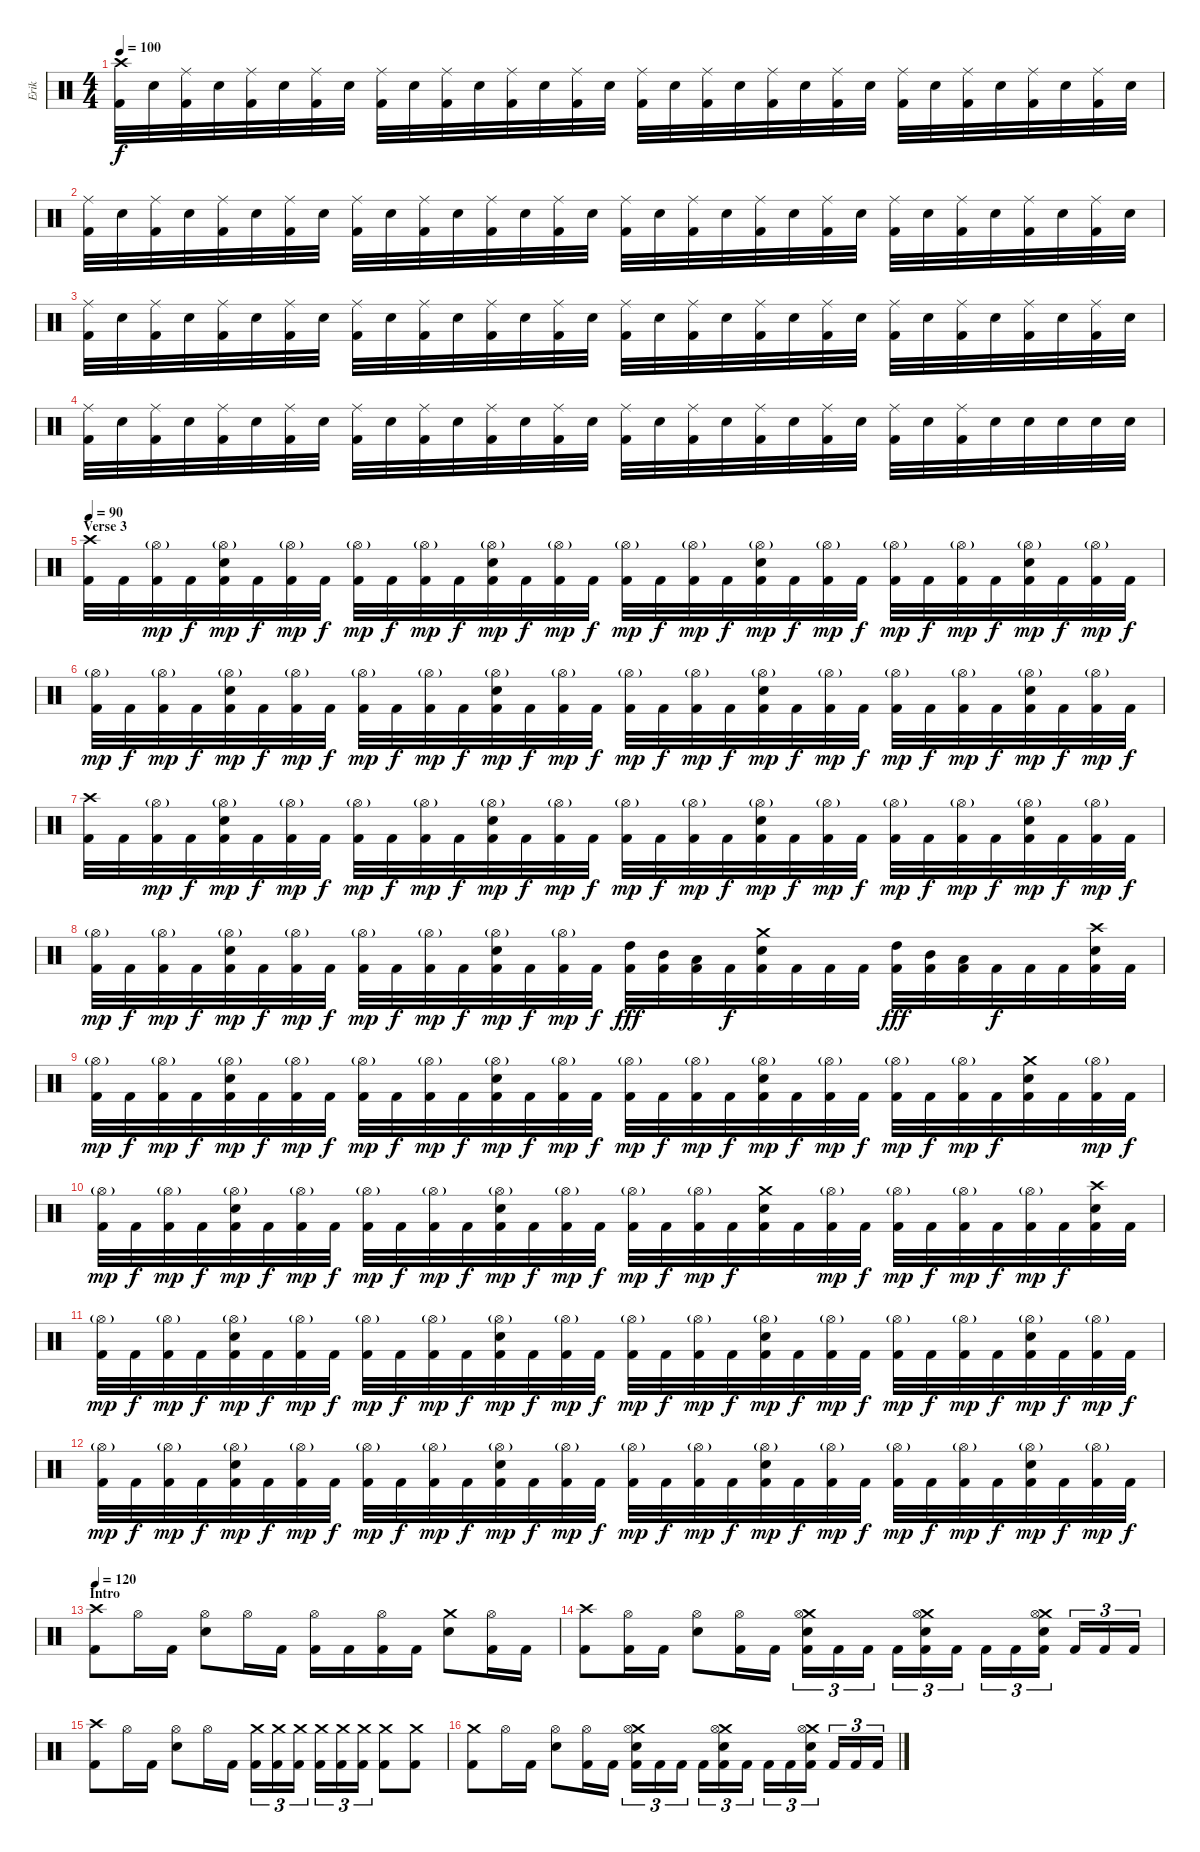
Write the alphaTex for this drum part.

\track ("Erik" "Erik") {instrument percussion}
\staff {score}
\articulation defaults
\ts (4 4)
\tempo 100
\clef neutral
\ks c
("Crash high (hit)" "Kick (hit) 2").32{dy f} "Electric Snare (hit)".32 ("Ride (middle)" "Kick (hit) 2").32 "Electric Snare (hit)".32 ("Ride (middle)" "Kick (hit) 2").32 "Electric Snare (hit)".32 ("Ride (middle)" "Kick (hit) 2").32 "Electric Snare (hit)".32 ("Ride (middle)" "Kick (hit) 2").32 "Electric Snare (hit)".32 ("Ride (middle)" "Kick (hit) 2").32 "Electric Snare (hit)".32 ("Ride (middle)" "Kick (hit) 2").32 "Electric Snare (hit)".32 ("Ride (middle)" "Kick (hit) 2").32 "Electric Snare (hit)".32 ("Ride (middle)" "Kick (hit) 2").32 "Electric Snare (hit)".32 ("Ride (middle)" "Kick (hit) 2").32 "Electric Snare (hit)".32 ("Ride (middle)" "Kick (hit) 2").32 "Electric Snare (hit)".32 ("Ride (middle)" "Kick (hit) 2").32 "Electric Snare (hit)".32 ("Ride (middle)" "Kick (hit) 2").32 "Electric Snare (hit)".32 ("Ride (middle)" "Kick (hit) 2").32 "Electric Snare (hit)".32 ("Ride (middle)" "Kick (hit) 2").32 "Electric Snare (hit)".32 ("Ride (middle)" "Kick (hit) 2").32 "Electric Snare (hit)".32 |
("Ride (middle)" "Kick (hit) 2").32 "Electric Snare (hit)".32 ("Ride (middle)" "Kick (hit) 2").32 "Electric Snare (hit)".32 ("Ride (middle)" "Kick (hit) 2").32 "Electric Snare (hit)".32 ("Ride (middle)" "Kick (hit) 2").32 "Electric Snare (hit)".32 ("Ride (middle)" "Kick (hit) 2").32 "Electric Snare (hit)".32 ("Ride (middle)" "Kick (hit) 2").32 "Electric Snare (hit)".32 ("Ride (middle)" "Kick (hit) 2").32 "Electric Snare (hit)".32 ("Ride (middle)" "Kick (hit) 2").32 "Electric Snare (hit)".32 ("Ride (middle)" "Kick (hit) 2").32 "Electric Snare (hit)".32 ("Ride (middle)" "Kick (hit) 2").32 "Electric Snare (hit)".32 ("Ride (middle)" "Kick (hit) 2").32 "Electric Snare (hit)".32 ("Ride (middle)" "Kick (hit) 2").32 "Electric Snare (hit)".32 ("Ride (middle)" "Kick (hit) 2").32 "Electric Snare (hit)".32 ("Ride (middle)" "Kick (hit) 2").32 "Electric Snare (hit)".32 ("Ride (middle)" "Kick (hit) 2").32 "Electric Snare (hit)".32 ("Ride (middle)" "Kick (hit) 2").32 "Electric Snare (hit)".32 |
("Ride (middle)" "Kick (hit) 2").32 "Electric Snare (hit)".32 ("Ride (middle)" "Kick (hit) 2").32 "Electric Snare (hit)".32 ("Ride (middle)" "Kick (hit) 2").32 "Electric Snare (hit)".32 ("Ride (middle)" "Kick (hit) 2").32 "Electric Snare (hit)".32 ("Ride (middle)" "Kick (hit) 2").32 "Electric Snare (hit)".32 ("Ride (middle)" "Kick (hit) 2").32 "Electric Snare (hit)".32 ("Ride (middle)" "Kick (hit) 2").32 "Electric Snare (hit)".32 ("Ride (middle)" "Kick (hit) 2").32 "Electric Snare (hit)".32 ("Ride (middle)" "Kick (hit) 2").32 "Electric Snare (hit)".32 ("Ride (middle)" "Kick (hit) 2").32 "Electric Snare (hit)".32 ("Ride (middle)" "Kick (hit) 2").32 "Electric Snare (hit)".32 ("Ride (middle)" "Kick (hit) 2").32 "Electric Snare (hit)".32 ("Ride (middle)" "Kick (hit) 2").32 "Electric Snare (hit)".32 ("Ride (middle)" "Kick (hit) 2").32 "Electric Snare (hit)".32 ("Ride (middle)" "Kick (hit) 2").32 "Electric Snare (hit)".32 ("Ride (middle)" "Kick (hit) 2").32 "Electric Snare (hit)".32 |
("Ride (middle)" "Kick (hit) 2").32 "Electric Snare (hit)".32 ("Ride (middle)" "Kick (hit) 2").32 "Electric Snare (hit)".32 ("Ride (middle)" "Kick (hit) 2").32 "Electric Snare (hit)".32 ("Ride (middle)" "Kick (hit) 2").32 "Electric Snare (hit)".32 ("Ride (middle)" "Kick (hit) 2").32 "Electric Snare (hit)".32 ("Ride (middle)" "Kick (hit) 2").32 "Electric Snare (hit)".32 ("Ride (middle)" "Kick (hit) 2").32 "Electric Snare (hit)".32 ("Ride (middle)" "Kick (hit) 2").32 "Electric Snare (hit)".32 ("Ride (middle)" "Kick (hit) 2").32 "Electric Snare (hit)".32 ("Ride (middle)" "Kick (hit) 2").32 "Electric Snare (hit)".32 ("Ride (middle)" "Kick (hit) 2").32 "Electric Snare (hit)".32 ("Ride (middle)" "Kick (hit) 2").32 "Electric Snare (hit)".32 ("Ride (middle)" "Kick (hit) 2").32 "Electric Snare (hit)".32 ("Ride (middle)" "Kick (hit) 2").32 "Electric Snare (hit)".32 "Electric Snare (hit)".32 "Electric Snare (hit)".32 "Electric Snare (hit)".32 "Electric Snare (hit)".32 |
\section ("" "Verse 3")
\tempo 90
("Crash high (hit)" "Kick (hit) 2").32 "Kick (hit) 2".32 ("Hi-Hat (open)"{g} "Kick (hit) 2").32{dy mp} "Kick (hit) 2".32{dy f} ("Hi-Hat (open)"{g} "Electric Snare (hit)" "Kick (hit) 2").32{dy mp} "Kick (hit) 2".32{dy f} ("Hi-Hat (open)"{g} "Kick (hit) 2").32{dy mp} "Kick (hit) 2".32{dy f} ("Hi-Hat (open)"{g} "Kick (hit) 2").32{dy mp} "Kick (hit) 2".32{dy f} ("Hi-Hat (open)"{g} "Kick (hit) 2").32{dy mp} "Kick (hit) 2".32{dy f} ("Hi-Hat (open)"{g} "Electric Snare (hit)" "Kick (hit) 2").32{dy mp} "Kick (hit) 2".32{dy f} ("Hi-Hat (open)"{g} "Kick (hit) 2").32{dy mp} "Kick (hit) 2".32{dy f} ("Hi-Hat (open)"{g} "Kick (hit) 2").32{dy mp} "Kick (hit) 2".32{dy f} ("Hi-Hat (open)"{g} "Kick (hit) 2").32{dy mp} "Kick (hit) 2".32{dy f} ("Hi-Hat (open)"{g} "Electric Snare (hit)" "Kick (hit) 2").32{dy mp} "Kick (hit) 2".32{dy f} ("Hi-Hat (open)"{g} "Kick (hit) 2").32{dy mp} "Kick (hit) 2".32{dy f} ("Hi-Hat (open)"{g} "Kick (hit) 2").32{dy mp} "Kick (hit) 2".32{dy f} ("Hi-Hat (open)"{g} "Kick (hit) 2").32{dy mp} "Kick (hit) 2".32{dy f} ("Hi-Hat (open)"{g} "Electric Snare (hit)" "Kick (hit) 2").32{dy mp} "Kick (hit) 2".32{dy f} ("Hi-Hat (open)"{g} "Kick (hit) 2").32{dy mp} "Kick (hit) 2".32{dy f} |
("Hi-Hat (open)"{g} "Kick (hit) 2").32{dy mp} "Kick (hit) 2".32{dy f} ("Hi-Hat (open)"{g} "Kick (hit) 2").32{dy mp} "Kick (hit) 2".32{dy f} ("Hi-Hat (open)"{g} "Electric Snare (hit)" "Kick (hit) 2").32{dy mp} "Kick (hit) 2".32{dy f} ("Hi-Hat (open)"{g} "Kick (hit) 2").32{dy mp} "Kick (hit) 2".32{dy f} ("Hi-Hat (open)"{g} "Kick (hit) 2").32{dy mp} "Kick (hit) 2".32{dy f} ("Hi-Hat (open)"{g} "Kick (hit) 2").32{dy mp} "Kick (hit) 2".32{dy f} ("Hi-Hat (open)"{g} "Electric Snare (hit)" "Kick (hit) 2").32{dy mp} "Kick (hit) 2".32{dy f} ("Hi-Hat (open)"{g} "Kick (hit) 2").32{dy mp} "Kick (hit) 2".32{dy f} ("Hi-Hat (open)"{g} "Kick (hit) 2").32{dy mp} "Kick (hit) 2".32{dy f} ("Hi-Hat (open)"{g} "Kick (hit) 2").32{dy mp} "Kick (hit) 2".32{dy f} ("Hi-Hat (open)"{g} "Electric Snare (hit)" "Kick (hit) 2").32{dy mp} "Kick (hit) 2".32{dy f} ("Hi-Hat (open)"{g} "Kick (hit) 2").32{dy mp} "Kick (hit) 2".32{dy f} ("Hi-Hat (open)"{g} "Kick (hit) 2").32{dy mp} "Kick (hit) 2".32{dy f} ("Hi-Hat (open)"{g} "Kick (hit) 2").32{dy mp} "Kick (hit) 2".32{dy f} ("Hi-Hat (open)"{g} "Electric Snare (hit)" "Kick (hit) 2").32{dy mp} "Kick (hit) 2".32{dy f} ("Hi-Hat (open)"{g} "Kick (hit) 2").32{dy mp} "Kick (hit) 2".32{dy f} |
("Crash high (hit)" "Kick (hit) 2").32 "Kick (hit) 2".32 ("Hi-Hat (open)"{g} "Kick (hit) 2").32{dy mp} "Kick (hit) 2".32{dy f} ("Hi-Hat (open)"{g} "Electric Snare (hit)" "Kick (hit) 2").32{dy mp} "Kick (hit) 2".32{dy f} ("Hi-Hat (open)"{g} "Kick (hit) 2").32{dy mp} "Kick (hit) 2".32{dy f} ("Hi-Hat (open)"{g} "Kick (hit) 2").32{dy mp} "Kick (hit) 2".32{dy f} ("Hi-Hat (open)"{g} "Kick (hit) 2").32{dy mp} "Kick (hit) 2".32{dy f} ("Hi-Hat (open)"{g} "Electric Snare (hit)" "Kick (hit) 2").32{dy mp} "Kick (hit) 2".32{dy f} ("Hi-Hat (open)"{g} "Kick (hit) 2").32{dy mp} "Kick (hit) 2".32{dy f} ("Hi-Hat (open)"{g} "Kick (hit) 2").32{dy mp} "Kick (hit) 2".32{dy f} ("Hi-Hat (open)"{g} "Kick (hit) 2").32{dy mp} "Kick (hit) 2".32{dy f} ("Hi-Hat (open)"{g} "Electric Snare (hit)" "Kick (hit) 2").32{dy mp} "Kick (hit) 2".32{dy f} ("Hi-Hat (open)"{g} "Kick (hit) 2").32{dy mp} "Kick (hit) 2".32{dy f} ("Hi-Hat (open)"{g} "Kick (hit) 2").32{dy mp} "Kick (hit) 2".32{dy f} ("Hi-Hat (open)"{g} "Kick (hit) 2").32{dy mp} "Kick (hit) 2".32{dy f} ("Hi-Hat (open)"{g} "Electric Snare (hit)" "Kick (hit) 2").32{dy mp} "Kick (hit) 2".32{dy f} ("Hi-Hat (open)"{g} "Kick (hit) 2").32{dy mp} "Kick (hit) 2".32{dy f} |
("Hi-Hat (open)"{g} "Kick (hit) 2").32{dy mp} "Kick (hit) 2".32{dy f} ("Hi-Hat (open)"{g} "Kick (hit) 2").32{dy mp} "Kick (hit) 2".32{dy f} ("Hi-Hat (open)"{g} "Electric Snare (hit)" "Kick (hit) 2").32{dy mp} "Kick (hit) 2".32{dy f} ("Hi-Hat (open)"{g} "Kick (hit) 2").32{dy mp} "Kick (hit) 2".32{dy f} ("Hi-Hat (open)"{g} "Kick (hit) 2").32{dy mp} "Kick (hit) 2".32{dy f} ("Hi-Hat (open)"{g} "Kick (hit) 2").32{dy mp} "Kick (hit) 2".32{dy f} ("Hi-Hat (open)"{g} "Electric Snare (hit)" "Kick (hit) 2").32{dy mp} "Kick (hit) 2".32{dy f} ("Hi-Hat (open)"{g} "Kick (hit) 2").32{dy mp} "Kick (hit) 2".32{dy f} ("High Tom (hit)" "Kick (hit) 2").32{dy fff} ("Mid Tom (hit)" "Kick (hit) 2").32 ("Low Tom (hit)" "Kick (hit) 2").32 "Kick (hit) 2".32{dy f} ("Crash medium (hit)" "Electric Snare (hit)" "Kick (hit) 2").32 "Kick (hit) 2".32 "Kick (hit) 2".32 "Kick (hit) 2".32 ("High Tom (hit)" "Kick (hit) 2").32{dy fff} ("Mid Tom (hit)" "Kick (hit) 2").32 ("Low Tom (hit)" "Kick (hit) 2").32 "Kick (hit) 2".32{dy f} "Kick (hit) 2".32 "Kick (hit) 2".32 ("Crash high (hit)" "Electric Snare (hit)" "Kick (hit) 2").32 "Kick (hit) 2".32 |
("Hi-Hat (open)"{g} "Kick (hit) 2").32{dy mp} "Kick (hit) 2".32{dy f} ("Hi-Hat (open)"{g} "Kick (hit) 2").32{dy mp} "Kick (hit) 2".32{dy f} ("Hi-Hat (open)"{g} "Electric Snare (hit)" "Kick (hit) 2").32{dy mp} "Kick (hit) 2".32{dy f} ("Hi-Hat (open)"{g} "Kick (hit) 2").32{dy mp} "Kick (hit) 2".32{dy f} ("Hi-Hat (open)"{g} "Kick (hit) 2").32{dy mp} "Kick (hit) 2".32{dy f} ("Hi-Hat (open)"{g} "Kick (hit) 2").32{dy mp} "Kick (hit) 2".32{dy f} ("Hi-Hat (open)"{g} "Electric Snare (hit)" "Kick (hit) 2").32{dy mp} "Kick (hit) 2".32{dy f} ("Hi-Hat (open)"{g} "Kick (hit) 2").32{dy mp} "Kick (hit) 2".32{dy f} ("Hi-Hat (open)"{g} "Kick (hit) 2").32{dy mp} "Kick (hit) 2".32{dy f} ("Hi-Hat (open)"{g} "Kick (hit) 2").32{dy mp} "Kick (hit) 2".32{dy f} ("Hi-Hat (open)"{g} "Electric Snare (hit)" "Kick (hit) 2").32{dy mp} "Kick (hit) 2".32{dy f} ("Hi-Hat (open)"{g} "Kick (hit) 2").32{dy mp} "Kick (hit) 2".32{dy f} ("Hi-Hat (open)"{g} "Kick (hit) 2").32{dy mp} "Kick (hit) 2".32{dy f} ("Hi-Hat (open)"{g} "Kick (hit) 2").32{dy mp} "Kick (hit) 2".32{dy f} ("Crash medium (hit)" "Electric Snare (hit)" "Kick (hit) 2").32 "Kick (hit) 2".32 ("Hi-Hat (open)"{g} "Kick (hit) 2").32{dy mp} "Kick (hit) 2".32{dy f} |
("Hi-Hat (open)"{g} "Kick (hit) 2").32{dy mp} "Kick (hit) 2".32{dy f} ("Hi-Hat (open)"{g} "Kick (hit) 2").32{dy mp} "Kick (hit) 2".32{dy f} ("Hi-Hat (open)"{g} "Electric Snare (hit)" "Kick (hit) 2").32{dy mp} "Kick (hit) 2".32{dy f} ("Hi-Hat (open)"{g} "Kick (hit) 2").32{dy mp} "Kick (hit) 2".32{dy f} ("Hi-Hat (open)"{g} "Kick (hit) 2").32{dy mp} "Kick (hit) 2".32{dy f} ("Hi-Hat (open)"{g} "Kick (hit) 2").32{dy mp} "Kick (hit) 2".32{dy f} ("Hi-Hat (open)"{g} "Electric Snare (hit)" "Kick (hit) 2").32{dy mp} "Kick (hit) 2".32{dy f} ("Hi-Hat (open)"{g} "Kick (hit) 2").32{dy mp} "Kick (hit) 2".32{dy f} ("Hi-Hat (open)"{g} "Kick (hit) 2").32{dy mp} "Kick (hit) 2".32{dy f} ("Hi-Hat (open)"{g} "Kick (hit) 2").32{dy mp} "Kick (hit) 2".32{dy f} ("Crash medium (hit)" "Electric Snare (hit)" "Kick (hit) 2").32 "Kick (hit) 2".32 ("Hi-Hat (open)"{g} "Kick (hit) 2").32{dy mp} "Kick (hit) 2".32{dy f} ("Hi-Hat (open)"{g} "Kick (hit) 2").32{dy mp} "Kick (hit) 2".32{dy f} ("Hi-Hat (open)"{g} "Kick (hit) 2").32{dy mp} "Kick (hit) 2".32{dy f} ("Hi-Hat (open)"{g} "Kick (hit) 2").32{dy mp} "Kick (hit) 2".32{dy f} ("Crash high (hit)" "Electric Snare (hit)" "Kick (hit) 2").32 "Kick (hit) 2".32 |
("Hi-Hat (open)"{g} "Kick (hit) 2").32{dy mp} "Kick (hit) 2".32{dy f} ("Hi-Hat (open)"{g} "Kick (hit) 2").32{dy mp} "Kick (hit) 2".32{dy f} ("Hi-Hat (open)"{g} "Electric Snare (hit)" "Kick (hit) 2").32{dy mp} "Kick (hit) 2".32{dy f} ("Hi-Hat (open)"{g} "Kick (hit) 2").32{dy mp} "Kick (hit) 2".32{dy f} ("Hi-Hat (open)"{g} "Kick (hit) 2").32{dy mp} "Kick (hit) 2".32{dy f} ("Hi-Hat (open)"{g} "Kick (hit) 2").32{dy mp} "Kick (hit) 2".32{dy f} ("Hi-Hat (open)"{g} "Electric Snare (hit)" "Kick (hit) 2").32{dy mp} "Kick (hit) 2".32{dy f} ("Hi-Hat (open)"{g} "Kick (hit) 2").32{dy mp} "Kick (hit) 2".32{dy f} ("Hi-Hat (open)"{g} "Kick (hit) 2").32{dy mp} "Kick (hit) 2".32{dy f} ("Hi-Hat (open)"{g} "Kick (hit) 2").32{dy mp} "Kick (hit) 2".32{dy f} ("Hi-Hat (open)"{g} "Electric Snare (hit)" "Kick (hit) 2").32{dy mp} "Kick (hit) 2".32{dy f} ("Hi-Hat (open)"{g} "Kick (hit) 2").32{dy mp} "Kick (hit) 2".32{dy f} ("Hi-Hat (open)"{g} "Kick (hit) 2").32{dy mp} "Kick (hit) 2".32{dy f} ("Hi-Hat (open)"{g} "Kick (hit) 2").32{dy mp} "Kick (hit) 2".32{dy f} ("Hi-Hat (open)"{g} "Electric Snare (hit)" "Kick (hit) 2").32{dy mp} "Kick (hit) 2".32{dy f} ("Hi-Hat (open)"{g} "Kick (hit) 2").32{dy mp} "Kick (hit) 2".32{dy f} |
("Hi-Hat (open)"{g} "Kick (hit) 2").32{dy mp} "Kick (hit) 2".32{dy f} ("Hi-Hat (open)"{g} "Kick (hit) 2").32{dy mp} "Kick (hit) 2".32{dy f} ("Hi-Hat (open)"{g} "Electric Snare (hit)" "Kick (hit) 2").32{dy mp} "Kick (hit) 2".32{dy f} ("Hi-Hat (open)"{g} "Kick (hit) 2").32{dy mp} "Kick (hit) 2".32{dy f} ("Hi-Hat (open)"{g} "Kick (hit) 2").32{dy mp} "Kick (hit) 2".32{dy f} ("Hi-Hat (open)"{g} "Kick (hit) 2").32{dy mp} "Kick (hit) 2".32{dy f} ("Hi-Hat (open)"{g} "Electric Snare (hit)" "Kick (hit) 2").32{dy mp} "Kick (hit) 2".32{dy f} ("Hi-Hat (open)"{g} "Kick (hit) 2").32{dy mp} "Kick (hit) 2".32{dy f} ("Hi-Hat (open)"{g} "Kick (hit) 2").32{dy mp} "Kick (hit) 2".32{dy f} ("Hi-Hat (open)"{g} "Kick (hit) 2").32{dy mp} "Kick (hit) 2".32{dy f} ("Hi-Hat (open)"{g} "Electric Snare (hit)" "Kick (hit) 2").32{dy mp} "Kick (hit) 2".32{dy f} ("Hi-Hat (open)"{g} "Kick (hit) 2").32{dy mp} "Kick (hit) 2".32{dy f} ("Hi-Hat (open)"{g} "Kick (hit) 2").32{dy mp} "Kick (hit) 2".32{dy f} ("Hi-Hat (open)"{g} "Kick (hit) 2").32{dy mp} "Kick (hit) 2".32{dy f} ("Hi-Hat (open)"{g} "Electric Snare (hit)" "Kick (hit) 2").32{dy mp} "Kick (hit) 2".32{dy f} ("Hi-Hat (open)"{g} "Kick (hit) 2").32{dy mp} "Kick (hit) 2".32{dy f} |
\section ("" "Intro")
\tempo 120
("Crash high (hit)" "Kick (hit) 2").8 "Hi-Hat (open)".16 "Kick (hit) 2".16 ("Hi-Hat (open)" "Electric Snare (hit)").8 "Hi-Hat (open)".16 "Kick (hit) 2".16 ("Hi-Hat (open)" "Kick (hit) 2").16 "Kick (hit) 2".16 ("Hi-Hat (open)" "Kick (hit) 2").16 "Kick (hit) 2".16 ("Crash medium (hit)" "Electric Snare (hit)").8 ("Hi-Hat (open)" "Kick (hit) 2").16 "Kick (hit) 2".16 |
("Crash high (hit)" "Kick (hit) 2").8 ("Hi-Hat (open)" "Kick (hit) 2").16 "Kick (hit) 2".16 ("Hi-Hat (open)" "Electric Snare (hit)").8 ("Hi-Hat (open)" "Kick (hit) 2").16 "Kick (hit) 2".16 ("Crash medium (hit)" "Hi-Hat (open)" "Electric Snare (hit)" "Kick (hit) 2").16{tu (3 2)} "Kick (hit) 2".16{tu (3 2)} "Kick (hit) 2".16{tu (3 2)} "Kick (hit) 2".16{tu (3 2)} ("Crash medium (hit)" "Hi-Hat (open)" "Electric Snare (hit)" "Kick (hit) 2").16{tu (3 2)} "Kick (hit) 2".16{tu (3 2)} "Kick (hit) 2".16{tu (3 2)} "Kick (hit) 2".16{tu (3 2)} ("Crash medium (hit)" "Hi-Hat (open)" "Electric Snare (hit)" "Kick (hit) 2").16{tu (3 2)} "Kick (hit) 2".16{tu (3 2)} "Kick (hit) 2".16{tu (3 2)} "Kick (hit) 2".16{tu (3 2)} |
("Crash high (hit)" "Kick (hit) 2").8 "Hi-Hat (open)".16 "Kick (hit) 2".16 ("Hi-Hat (open)" "Electric Snare (hit)").8 "Hi-Hat (open)".16 "Kick (hit) 2".16 ("Crash medium (hit)" "Kick (hit) 2").16{tu (3 2)} ("Crash medium (hit)" "Kick (hit) 2").16{tu (3 2)} ("Crash medium (hit)" "Kick (hit) 2").16{tu (3 2)} ("Crash medium (hit)" "Kick (hit) 2").16{tu (3 2)} ("Crash medium (hit)" "Kick (hit) 2").16{tu (3 2)} ("Crash medium (hit)" "Kick (hit) 2").16{tu (3 2)} ("Crash medium (hit)" "Kick (hit) 2").8 ("Crash medium (hit)" "Kick (hit) 2").8 |
("Crash medium (hit)" "Kick (hit) 2").8 "Hi-Hat (open)".16 "Kick (hit) 2".16 ("Hi-Hat (open)" "Electric Snare (hit)").8 ("Hi-Hat (open)" "Kick (hit) 2").16 "Kick (hit) 2".16 ("Crash medium (hit)" "Hi-Hat (open)" "Electric Snare (hit)" "Kick (hit) 2").16{tu (3 2)} "Kick (hit) 2".16{tu (3 2)} "Kick (hit) 2".16{tu (3 2)} "Kick (hit) 2".16{tu (3 2)} ("Crash medium (hit)" "Hi-Hat (open)" "Electric Snare (hit)" "Kick (hit) 2").16{tu (3 2)} "Kick (hit) 2".16{tu (3 2)} "Kick (hit) 2".16{tu (3 2)} "Kick (hit) 2".16{tu (3 2)} ("Crash medium (hit)" "Hi-Hat (open)" "Electric Snare (hit)" "Kick (hit) 2").16{tu (3 2)} "Kick (hit) 2".16{tu (3 2)} "Kick (hit) 2".16{tu (3 2)} "Kick (hit) 2".16{tu (3 2)}
